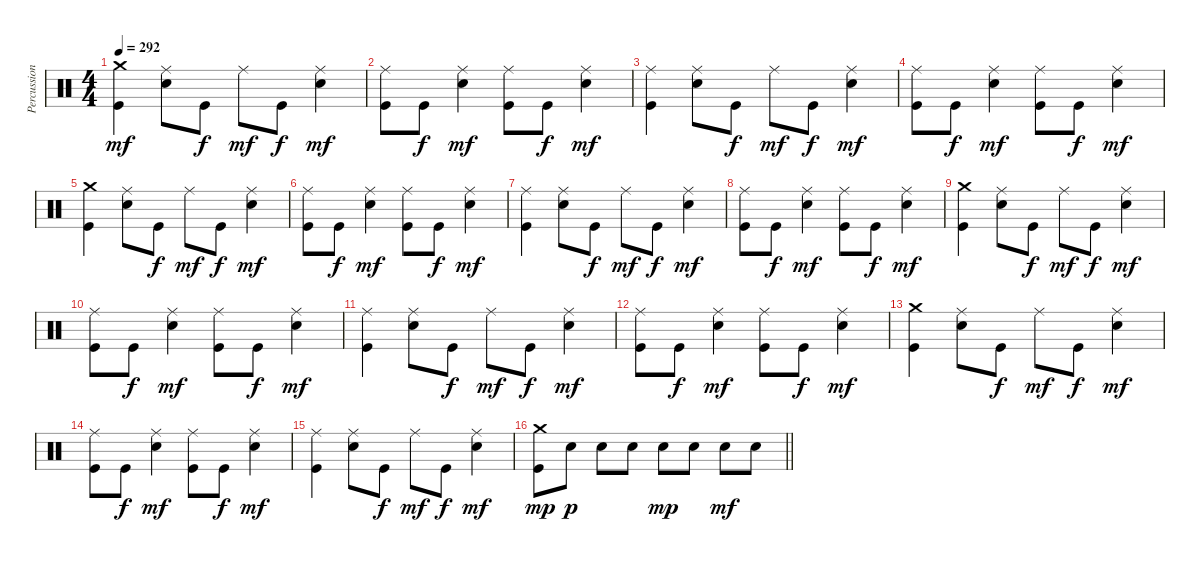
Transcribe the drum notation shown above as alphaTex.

\track ("Percussion" "Percussion") {instrument percussion}
\staff {score}
\articulation defaults
\ts (4 4)
\tempo 292
\clef neutral
\ks c
("Crash medium (hit)" "Kick (hit)").4{dy mf} ("Ride (middle)" "Electric Snare (hit)").8 "Kick (hit)".8{dy f} "Ride (middle)".8{dy mf} "Kick (hit)".8{dy f} ("Ride (middle)" "Electric Snare (hit)").4{dy mf} |
("Ride (middle)" "Kick (hit)").8 "Kick (hit)".8{dy f} ("Ride (middle)" "Electric Snare (hit)").4{dy mf} ("Ride (middle)" "Kick (hit)").8 "Kick (hit)".8{dy f} ("Ride (middle)" "Electric Snare (hit)").4{dy mf} |
("Ride (middle)" "Kick (hit)").4 ("Ride (middle)" "Electric Snare (hit)").8 "Kick (hit)".8{dy f} "Ride (middle)".8{dy mf} "Kick (hit)".8{dy f} ("Ride (middle)" "Electric Snare (hit)").4{dy mf} |
("Ride (middle)" "Kick (hit)").8 "Kick (hit)".8{dy f} ("Ride (middle)" "Electric Snare (hit)").4{dy mf} ("Ride (middle)" "Kick (hit)").8 "Kick (hit)".8{dy f} ("Ride (middle)" "Electric Snare (hit)").4{dy mf} |
("Crash medium (hit)" "Kick (hit)").4 ("Ride (middle)" "Electric Snare (hit)").8 "Kick (hit)".8{dy f} "Ride (middle)".8{dy mf} "Kick (hit)".8{dy f} ("Ride (middle)" "Electric Snare (hit)").4{dy mf} |
("Ride (middle)" "Kick (hit)").8 "Kick (hit)".8{dy f} ("Ride (middle)" "Electric Snare (hit)").4{dy mf} ("Ride (middle)" "Kick (hit)").8 "Kick (hit)".8{dy f} ("Ride (middle)" "Electric Snare (hit)").4{dy mf} |
("Ride (middle)" "Kick (hit)").4 ("Ride (middle)" "Electric Snare (hit)").8 "Kick (hit)".8{dy f} "Ride (middle)".8{dy mf} "Kick (hit)".8{dy f} ("Ride (middle)" "Electric Snare (hit)").4{dy mf} |
("Ride (middle)" "Kick (hit)").8 "Kick (hit)".8{dy f} ("Ride (middle)" "Electric Snare (hit)").4{dy mf} ("Ride (middle)" "Kick (hit)").8 "Kick (hit)".8{dy f} ("Ride (middle)" "Electric Snare (hit)").4{dy mf} |
("Crash medium (hit)" "Kick (hit)").4 ("Ride (middle)" "Electric Snare (hit)").8 "Kick (hit)".8{dy f} "Ride (middle)".8{dy mf} "Kick (hit)".8{dy f} ("Ride (middle)" "Electric Snare (hit)").4{dy mf} |
("Ride (middle)" "Kick (hit)").8 "Kick (hit)".8{dy f} ("Ride (middle)" "Electric Snare (hit)").4{dy mf} ("Ride (middle)" "Kick (hit)").8 "Kick (hit)".8{dy f} ("Ride (middle)" "Electric Snare (hit)").4{dy mf} |
("Ride (middle)" "Kick (hit)").4 ("Ride (middle)" "Electric Snare (hit)").8 "Kick (hit)".8{dy f} "Ride (middle)".8{dy mf} "Kick (hit)".8{dy f} ("Ride (middle)" "Electric Snare (hit)").4{dy mf} |
("Ride (middle)" "Kick (hit)").8 "Kick (hit)".8{dy f} ("Ride (middle)" "Electric Snare (hit)").4{dy mf} ("Ride (middle)" "Kick (hit)").8 "Kick (hit)".8{dy f} ("Ride (middle)" "Electric Snare (hit)").4{dy mf} |
("Crash medium (hit)" "Kick (hit)").4 ("Ride (middle)" "Electric Snare (hit)").8 "Kick (hit)".8{dy f} "Ride (middle)".8{dy mf} "Kick (hit)".8{dy f} ("Ride (middle)" "Electric Snare (hit)").4{dy mf} |
("Ride (middle)" "Kick (hit)").8 "Kick (hit)".8{dy f} ("Ride (middle)" "Electric Snare (hit)").4{dy mf} ("Ride (middle)" "Kick (hit)").8 "Kick (hit)".8{dy f} ("Ride (middle)" "Electric Snare (hit)").4{dy mf} |
("Ride (middle)" "Kick (hit)").4 ("Ride (middle)" "Electric Snare (hit)").8 "Kick (hit)".8{dy f} "Ride (middle)".8{dy mf} "Kick (hit)".8{dy f} ("Ride (middle)" "Electric Snare (hit)").4{dy mf} |
\barLineRight lightlight
("Crash medium (hit)" "Kick (hit)").8{dy mp} "Electric Snare (hit)".8{dy p} "Electric Snare (hit)".8 "Electric Snare (hit)".8 "Electric Snare (hit)".8{dy mp} "Electric Snare (hit)".8 "Electric Snare (hit)".8{dy mf} "Electric Snare (hit)".8
